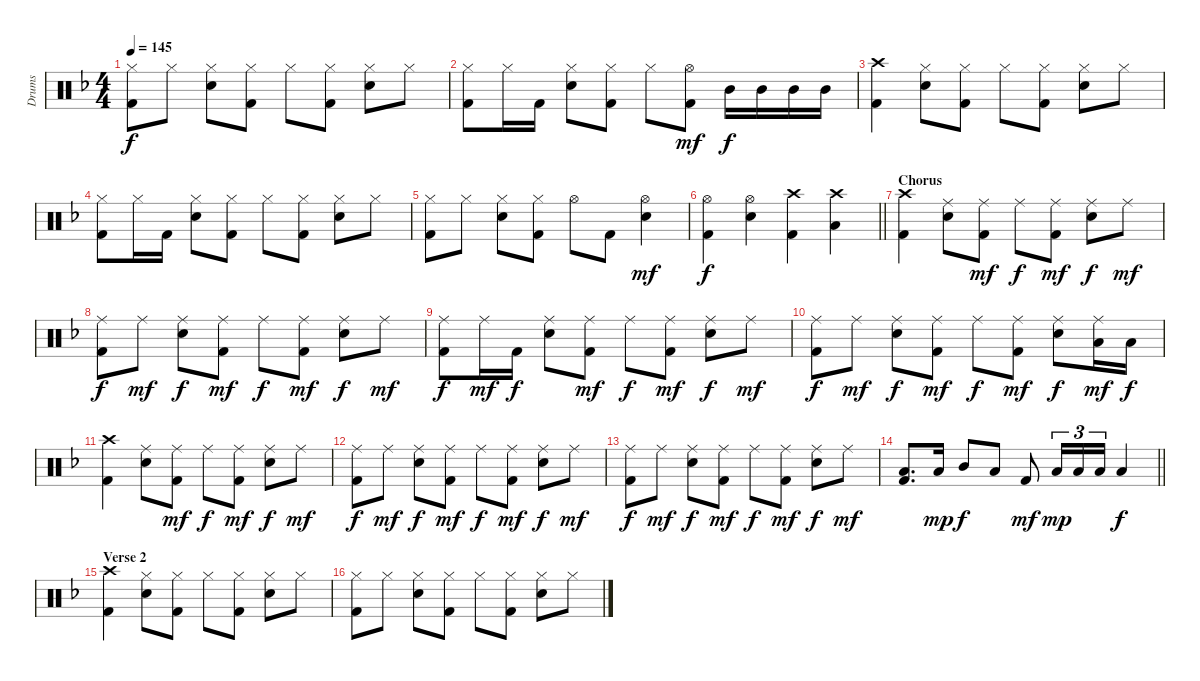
\track ("Drums" "Drums") {instrument percussion}
\staff {score}
\articulation defaults
\ts (4 4)
\tempo 145
\clef neutral
\ks f
("Hi-Hat (closed)" "Kick (hit) 2").8{dy f} "Hi-Hat (closed)".8 ("Hi-Hat (closed)" "Electric Snare (hit)").8 ("Hi-Hat (closed)" "Kick (hit) 2").8 "Hi-Hat (closed)".8 ("Hi-Hat (closed)" "Kick (hit) 2").8 ("Hi-Hat (closed)" "Electric Snare (hit)").8 "Hi-Hat (closed)".8 |
("Hi-Hat (closed)" "Kick (hit) 2").8 "Hi-Hat (closed)".16 "Kick (hit) 2".16 ("Hi-Hat (closed)" "Electric Snare (hit)").8 ("Hi-Hat (closed)" "Kick (hit) 2").8 "Hi-Hat (closed)".8 ("Hi-Hat (open)" "Kick (hit) 2").8{dy mf} "Mid Tom (hit)".16{dy f} "Mid Tom (hit)".16 "Mid Tom (hit)".16 "Mid Tom (hit)".16 |
("Crash high (hit)" "Kick (hit) 2").4 ("Hi-Hat (closed)" "Electric Snare (hit)").8 ("Hi-Hat (closed)" "Kick (hit) 2").8 "Hi-Hat (closed)".8 ("Hi-Hat (closed)" "Kick (hit) 2").8 ("Hi-Hat (closed)" "Electric Snare (hit)").8 "Hi-Hat (closed)".8 |
("Hi-Hat (closed)" "Kick (hit) 2").8 "Hi-Hat (closed)".16 "Kick (hit) 2".16 ("Hi-Hat (closed)" "Electric Snare (hit)").8 ("Hi-Hat (closed)" "Kick (hit) 2").8 "Hi-Hat (closed)".8 ("Hi-Hat (closed)" "Kick (hit) 2").8 ("Hi-Hat (closed)" "Electric Snare (hit)").8 "Hi-Hat (closed)".8 |
("Hi-Hat (closed)" "Kick (hit) 2").8 "Hi-Hat (closed)".8 ("Hi-Hat (closed)" "Electric Snare (hit)").8 ("Hi-Hat (closed)" "Kick (hit) 2").8 "Hi-Hat (open)".8 "Kick (hit) 2".8 ("Hi-Hat (open)" "Electric Snare (hit)").4{dy mf} |
\barLineRight lightlight
("Hi-Hat (open)" "Kick (hit) 2").4{dy f} ("Hi-Hat (open)" "Electric Snare (hit)").4 ("Crash high (hit)" "Kick (hit) 2").4 ("Crash high (hit)" "Low Tom (hit)").4 |
\section ("" "Chorus")
("Crash high (hit)" "Kick (hit) 2").4 ("Ride (middle)" "Electric Snare (hit)").8 ("Ride (middle)" "Kick (hit) 2").8{dy mf} "Ride (middle)".8{dy f} ("Ride (middle)" "Kick (hit) 2").8{dy mf} ("Ride (middle)" "Electric Snare (hit)").8{dy f} "Ride (middle)".8{dy mf} |
("Ride (middle)" "Kick (hit) 2").8{dy f} "Ride (middle)".8{dy mf} ("Ride (middle)" "Electric Snare (hit)").8{dy f} ("Ride (middle)" "Kick (hit) 2").8{dy mf} "Ride (middle)".8{dy f} ("Ride (middle)" "Kick (hit) 2").8{dy mf} ("Ride (middle)" "Electric Snare (hit)").8{dy f} "Ride (middle)".8{dy mf} |
("Ride (middle)" "Kick (hit) 2").8{dy f} "Ride (middle)".16{dy mf} "Kick (hit) 2".16{dy f} ("Ride (middle)" "Electric Snare (hit)").8 ("Ride (middle)" "Kick (hit) 2").8{dy mf} "Ride (middle)".8{dy f} ("Ride (middle)" "Kick (hit) 2").8{dy mf} ("Ride (middle)" "Electric Snare (hit)").8{dy f} "Ride (middle)".8{dy mf} |
("Ride (middle)" "Kick (hit) 2").8{dy f} "Ride (middle)".8{dy mf} ("Ride (middle)" "Electric Snare (hit)").8{dy f} ("Ride (middle)" "Kick (hit) 2").8{dy mf} "Ride (middle)".8{dy f} ("Ride (middle)" "Kick (hit) 2").8{dy mf} ("Ride (middle)" "Electric Snare (hit)").8{dy f} ("Ride (middle)" "Low Tom (hit)").16{dy mf} "Low Tom (hit)".16{dy f} |
("Crash high (hit)" "Kick (hit) 2").4 ("Ride (middle)" "Electric Snare (hit)").8 ("Ride (middle)" "Kick (hit) 2").8{dy mf} "Ride (middle)".8{dy f} ("Ride (middle)" "Kick (hit) 2").8{dy mf} ("Ride (middle)" "Electric Snare (hit)").8{dy f} "Ride (middle)".8{dy mf} |
("Ride (middle)" "Kick (hit) 2").8{dy f} "Ride (middle)".8{dy mf} ("Ride (middle)" "Electric Snare (hit)").8{dy f} ("Ride (middle)" "Kick (hit) 2").8{dy mf} "Ride (middle)".8{dy f} ("Ride (middle)" "Kick (hit) 2").8{dy mf} ("Ride (middle)" "Electric Snare (hit)").8{dy f} "Ride (middle)".8{dy mf} |
("Ride (middle)" "Kick (hit) 2").8{dy f} "Ride (middle)".8{dy mf} ("Ride (middle)" "Electric Snare (hit)").8{dy f} ("Ride (middle)" "Kick (hit) 2").8{dy mf} "Ride (middle)".8{dy f} ("Ride (middle)" "Kick (hit) 2").8{dy mf} ("Ride (middle)" "Electric Snare (hit)").8{dy f} "Ride (middle)".8{dy mf} |
\barLineRight lightlight
("Low Tom (hit)" "Kick (hit) 2").8{d} "Low Tom (hit)".16{dy mp} "Mid Tom (hit)".8{dy f} "Low Tom (hit)".8 "Kick (hit) 2".8{dy mf} "Low Tom (hit)".16{tu (3 2) dy mp} "Low Tom (hit)".16{tu (3 2)} "Low Tom (hit)".16{tu (3 2)} "Low Tom (hit)".4{dy f} |
\section ("" "Verse 2")
("Crash high (hit)" "Kick (hit) 2").4 ("Hi-Hat (closed)" "Electric Snare (hit)").8 ("Hi-Hat (closed)" "Kick (hit) 2").8 "Hi-Hat (closed)".8 ("Hi-Hat (closed)" "Kick (hit) 2").8 ("Hi-Hat (closed)" "Electric Snare (hit)").8 "Hi-Hat (closed)".8 |
("Hi-Hat (closed)" "Kick (hit) 2").8 "Hi-Hat (closed)".8 ("Hi-Hat (closed)" "Electric Snare (hit)").8 ("Hi-Hat (closed)" "Kick (hit) 2").8 "Hi-Hat (closed)".8 ("Hi-Hat (closed)" "Kick (hit) 2").8 ("Hi-Hat (closed)" "Electric Snare (hit)").8 "Hi-Hat (closed)".8
